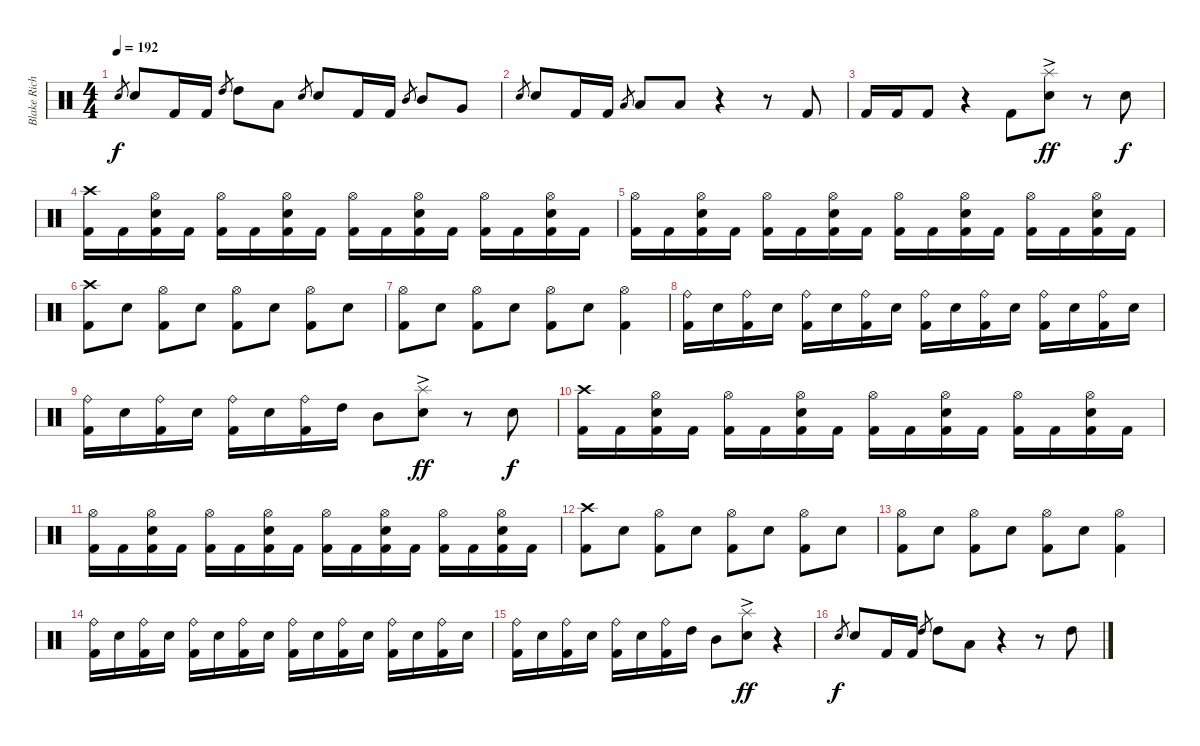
\track ("Blake Richardson" "Blake Rich") {instrument percussion}
\staff {score}
\articulation defaults
\ts (4 4)
\tempo 192
\clef neutral
\ks c "Electric Snare (hit)".8{gr dy f} "Electric Snare (hit)".8 "Kick (hit) 2".16 "Kick (hit) 2".16 "High Tom (hit)".8{gr} "High Tom (hit)".8 "Low Tom (hit)".8 "Electric Snare (hit)".8{gr} "Electric Snare (hit)".8 "Kick (hit) 2".16 "Kick (hit) 2".16 "Mid Tom (hit)".8{gr} "Mid Tom (hit)".8 "Very Low Tom (hit)".8
|
"Electric Snare (hit)".8{gr} "Electric Snare (hit)".8 "Kick (hit) 2".16 "Kick (hit) 2".16 "Low Tom (hit)".8{gr} "Low Tom (hit)".8 "Low Floor Tom (hit)".8 r.4 r.8 "Kick (hit) 2".8 |
"Kick (hit) 2".16 "Kick (hit) 2".16 "Kick (hit) 2".8 r.4 "Kick (hit) 2".8 ("Splash (hit)"{ac} "Electric Snare (hit)").8{dy ff} r.8 "Electric Snare (hit)".8{dy f} |
("Crash high (hit)" "Kick (hit) 2").16 "Kick (hit) 2".16 ("Hi-Hat (open)" "Electric Snare (hit)" "Kick (hit) 2").16 "Kick (hit) 2".16 ("Hi-Hat (open)" "Kick (hit) 2").16 "Kick (hit) 2".16 ("Hi-Hat (open)" "Electric Snare (hit)" "Kick (hit) 2").16 "Kick (hit) 2".16 ("Hi-Hat (open)" "Kick (hit) 2").16 "Kick (hit) 2".16 ("Hi-Hat (open)" "Electric Snare (hit)" "Kick (hit) 2").16 "Kick (hit) 2".16 ("Hi-Hat (open)" "Kick (hit) 2").16 "Kick (hit) 2".16 ("Hi-Hat (open)" "Electric Snare (hit)" "Kick (hit) 2").16 "Kick (hit) 2".16 |
("Hi-Hat (open)" "Kick (hit) 2").16 "Kick (hit) 2".16 ("Hi-Hat (open)" "Electric Snare (hit)" "Kick (hit) 2").16 "Kick (hit) 2".16 ("Hi-Hat (open)" "Kick (hit) 2").16 "Kick (hit) 2".16 ("Hi-Hat (open)" "Electric Snare (hit)" "Kick (hit) 2").16 "Kick (hit) 2".16 ("Hi-Hat (open)" "Kick (hit) 2").16 "Kick (hit) 2".16 ("Hi-Hat (open)" "Electric Snare (hit)" "Kick (hit) 2").16 "Kick (hit) 2".16 ("Hi-Hat (open)" "Kick (hit) 2").16 "Kick (hit) 2".16 ("Hi-Hat (open)" "Electric Snare (hit)" "Kick (hit) 2").16 "Kick (hit) 2".16 |
("Crash high (hit)" "Kick (hit) 2").8 "Electric Snare (hit)".8 ("Hi-Hat (open)" "Kick (hit) 2").8 "Electric Snare (hit)".8 ("Hi-Hat (open)" "Kick (hit) 2").8 "Electric Snare (hit)".8 ("Hi-Hat (open)" "Kick (hit) 2").8 "Electric Snare (hit)".8 |
("Hi-Hat (open)" "Kick (hit) 2").8 "Electric Snare (hit)".8 ("Hi-Hat (open)" "Kick (hit) 2").8 "Electric Snare (hit)".8 ("Hi-Hat (open)" "Kick (hit) 2").8 "Electric Snare (hit)".8 ("Hi-Hat (open)" "Kick (hit) 2").4 |
("Ride (bell)" "Kick (hit) 2").16 "Electric Snare (hit)".16 ("Ride (bell)" "Kick (hit) 2").16 "Electric Snare (hit)".16 ("Ride (bell)" "Kick (hit) 2").16 "Electric Snare (hit)".16 ("Ride (bell)" "Kick (hit) 2").16 "Electric Snare (hit)".16 ("Ride (bell)" "Kick (hit) 2").16 "Electric Snare (hit)".16 ("Ride (bell)" "Kick (hit) 2").16 "Electric Snare (hit)".16 ("Ride (bell)" "Kick (hit) 2").16 "Electric Snare (hit)".16 ("Ride (bell)" "Kick (hit) 2").16 "Electric Snare (hit)".16 |
("Ride (bell)" "Kick (hit) 2").16 "Electric Snare (hit)".16 ("Ride (bell)" "Kick (hit) 2").16 "Electric Snare (hit)".16 ("Ride (bell)" "Kick (hit) 2").16 "Electric Snare (hit)".16 ("Ride (bell)" "Kick (hit) 2").16 "High Tom (hit)".16 "Mid Tom (hit)".8 ("Splash (hit)"{ac} "Electric Snare (hit)").8{dy ff} r.8 "Electric Snare (hit)".8{dy f} |
("Crash high (hit)" "Kick (hit) 2").16 "Kick (hit) 2".16 ("Hi-Hat (open)" "Electric Snare (hit)" "Kick (hit) 2").16 "Kick (hit) 2".16 ("Hi-Hat (open)" "Kick (hit) 2").16 "Kick (hit) 2".16 ("Hi-Hat (open)" "Electric Snare (hit)" "Kick (hit) 2").16 "Kick (hit) 2".16 ("Hi-Hat (open)" "Kick (hit) 2").16 "Kick (hit) 2".16 ("Hi-Hat (open)" "Electric Snare (hit)" "Kick (hit) 2").16 "Kick (hit) 2".16 ("Hi-Hat (open)" "Kick (hit) 2").16 "Kick (hit) 2".16 ("Hi-Hat (open)" "Electric Snare (hit)" "Kick (hit) 2").16 "Kick (hit) 2".16 |
("Hi-Hat (open)" "Kick (hit) 2").16 "Kick (hit) 2".16 ("Hi-Hat (open)" "Electric Snare (hit)" "Kick (hit) 2").16 "Kick (hit) 2".16 ("Hi-Hat (open)" "Kick (hit) 2").16 "Kick (hit) 2".16 ("Hi-Hat (open)" "Electric Snare (hit)" "Kick (hit) 2").16 "Kick (hit) 2".16 ("Hi-Hat (open)" "Kick (hit) 2").16 "Kick (hit) 2".16 ("Hi-Hat (open)" "Electric Snare (hit)" "Kick (hit) 2").16 "Kick (hit) 2".16 ("Hi-Hat (open)" "Kick (hit) 2").16 "Kick (hit) 2".16 ("Hi-Hat (open)" "Electric Snare (hit)" "Kick (hit) 2").16 "Kick (hit) 2".16 |
("Crash high (hit)" "Kick (hit) 2").8 "Electric Snare (hit)".8 ("Hi-Hat (open)" "Kick (hit) 2").8 "Electric Snare (hit)".8 ("Hi-Hat (open)" "Kick (hit) 2").8 "Electric Snare (hit)".8 ("Hi-Hat (open)" "Kick (hit) 2").8 "Electric Snare (hit)".8 |
("Hi-Hat (open)" "Kick (hit) 2").8 "Electric Snare (hit)".8 ("Hi-Hat (open)" "Kick (hit) 2").8 "Electric Snare (hit)".8 ("Hi-Hat (open)" "Kick (hit) 2").8 "Electric Snare (hit)".8 ("Hi-Hat (open)" "Kick (hit) 2").4 |
("Ride (bell)" "Kick (hit) 2").16 "Electric Snare (hit)".16 ("Ride (bell)" "Kick (hit) 2").16 "Electric Snare (hit)".16 ("Ride (bell)" "Kick (hit) 2").16 "Electric Snare (hit)".16 ("Ride (bell)" "Kick (hit) 2").16 "Electric Snare (hit)".16 ("Ride (bell)" "Kick (hit) 2").16 "Electric Snare (hit)".16 ("Ride (bell)" "Kick (hit) 2").16 "Electric Snare (hit)".16 ("Ride (bell)" "Kick (hit) 2").16 "Electric Snare (hit)".16 ("Ride (bell)" "Kick (hit) 2").16 "Electric Snare (hit)".16 |
("Ride (bell)" "Kick (hit) 2").16 "Electric Snare (hit)".16 ("Ride (bell)" "Kick (hit) 2").16 "Electric Snare (hit)".16 ("Ride (bell)" "Kick (hit) 2").16 "Electric Snare (hit)".16 ("Ride (bell)" "Kick (hit) 2").16 "High Tom (hit)".16 "Mid Tom (hit)".8 ("Splash (hit)"{ac} "Electric Snare (hit)").8{dy ff} r.4 |
"Electric Snare (hit)".8{gr dy f} "Electric Snare (hit)".8 "Kick (hit) 2".16 "Kick (hit) 2".16 "High Tom (hit)".8{gr} "High Tom (hit)".8 "Low Tom (hit)".8 r.4 r.8 "High Tom (hit)".8
